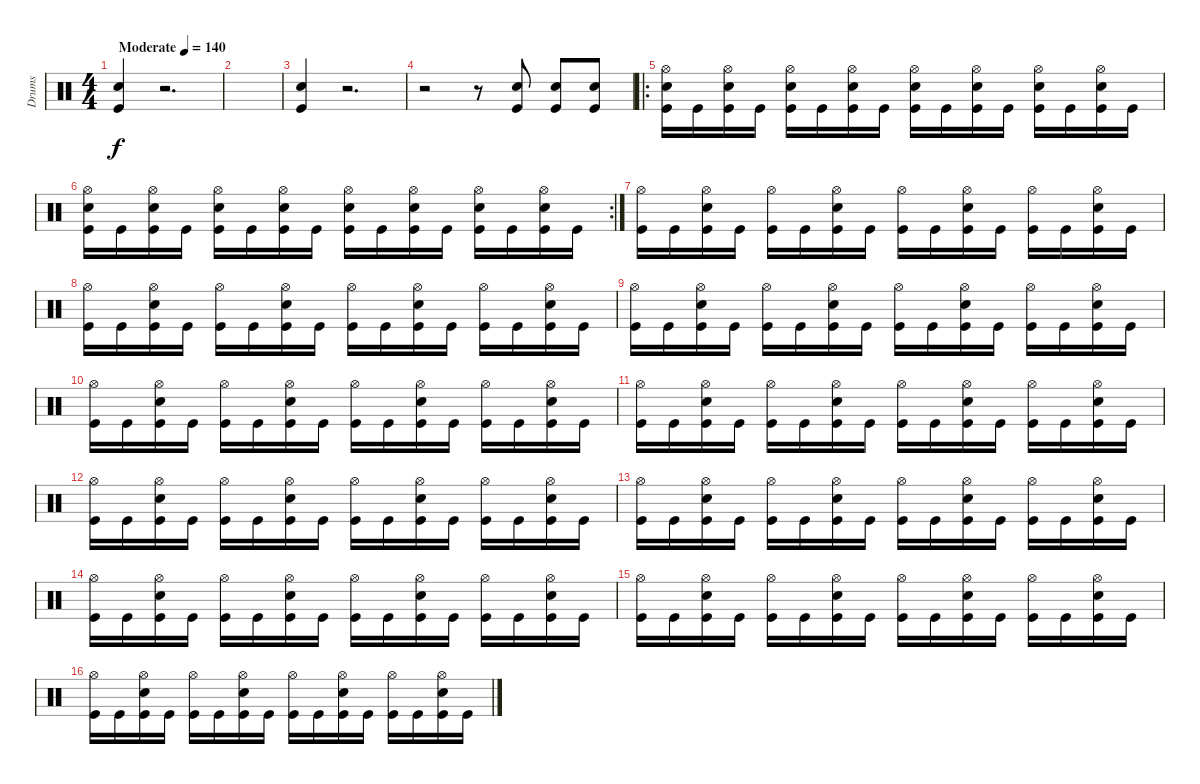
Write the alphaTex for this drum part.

\track ("Drums" "Drums") {instrument percussion}
\staff {score}
\articulation defaults
\ts (4 4)
\tempo (140 "Moderate")
\clef neutral
\ks c
("Snare (hit) 2" "Kick (hit)").4{dy f} r.2{d} |
|
("Snare (hit) 2" "Kick (hit)").4 r.2{d} |
r.2 r.8 ("Snare (hit) 2" "Kick (hit)").8 ("Snare (hit) 2" "Kick (hit)").8 ("Snare (hit) 2" "Kick (hit)").8 |
\ro
("Hi-Hat (open)" "Snare (hit) 2" "Kick (hit)").16 "Kick (hit)".16 ("Hi-Hat (open)" "Snare (hit) 2" "Kick (hit)").16 "Kick (hit)".16 ("Hi-Hat (open)" "Snare (hit) 2" "Kick (hit)").16 "Kick (hit)".16 ("Hi-Hat (open)" "Snare (hit) 2" "Kick (hit)").16 "Kick (hit)".16 ("Hi-Hat (open)" "Snare (hit) 2" "Kick (hit)").16 "Kick (hit)".16 ("Hi-Hat (open)" "Snare (hit) 2" "Kick (hit)").16 "Kick (hit)".16 ("Hi-Hat (open)" "Snare (hit) 2" "Kick (hit)").16 "Kick (hit)".16 ("Hi-Hat (open)" "Snare (hit) 2" "Kick (hit)").16 "Kick (hit)".16 |
\rc 2
("Hi-Hat (open)" "Snare (hit) 2" "Kick (hit)").16 "Kick (hit)".16 ("Hi-Hat (open)" "Snare (hit) 2" "Kick (hit)").16 "Kick (hit)".16 ("Hi-Hat (open)" "Snare (hit) 2" "Kick (hit)").16 "Kick (hit)".16 ("Hi-Hat (open)" "Snare (hit) 2" "Kick (hit)").16 "Kick (hit)".16 ("Hi-Hat (open)" "Snare (hit) 2" "Kick (hit)").16 "Kick (hit)".16 ("Hi-Hat (open)" "Snare (hit) 2" "Kick (hit)").16 "Kick (hit)".16 ("Hi-Hat (open)" "Snare (hit) 2" "Kick (hit)").16 "Kick (hit)".16 ("Hi-Hat (open)" "Snare (hit) 2" "Kick (hit)").16 "Kick (hit)".16 |
("Hi-Hat (open)" "Kick (hit)").16 "Kick (hit)".16 ("Hi-Hat (open)" "Snare (hit) 2" "Kick (hit)").16 "Kick (hit)".16 ("Hi-Hat (open)" "Kick (hit)").16 "Kick (hit)".16 ("Hi-Hat (open)" "Snare (hit) 2" "Kick (hit)").16 "Kick (hit)".16 ("Hi-Hat (open)" "Kick (hit)").16 "Kick (hit)".16 ("Hi-Hat (open)" "Snare (hit) 2" "Kick (hit)").16 "Kick (hit)".16 ("Hi-Hat (open)" "Kick (hit)").16 "Kick (hit)".16 ("Hi-Hat (open)" "Snare (hit) 2" "Kick (hit)").16 "Kick (hit)".16 |
("Hi-Hat (open)" "Kick (hit)").16 "Kick (hit)".16 ("Hi-Hat (open)" "Snare (hit) 2" "Kick (hit)").16 "Kick (hit)".16 ("Hi-Hat (open)" "Kick (hit)").16 "Kick (hit)".16 ("Hi-Hat (open)" "Snare (hit) 2" "Kick (hit)").16 "Kick (hit)".16 ("Hi-Hat (open)" "Kick (hit)").16 "Kick (hit)".16 ("Hi-Hat (open)" "Snare (hit) 2" "Kick (hit)").16 "Kick (hit)".16 ("Hi-Hat (open)" "Kick (hit)").16 "Kick (hit)".16 ("Hi-Hat (open)" "Snare (hit) 2" "Kick (hit)").16 "Kick (hit)".16 |
("Hi-Hat (open)" "Kick (hit)").16 "Kick (hit)".16 ("Hi-Hat (open)" "Snare (hit) 2" "Kick (hit)").16 "Kick (hit)".16 ("Hi-Hat (open)" "Kick (hit)").16 "Kick (hit)".16 ("Hi-Hat (open)" "Snare (hit) 2" "Kick (hit)").16 "Kick (hit)".16 ("Hi-Hat (open)" "Kick (hit)").16 "Kick (hit)".16 ("Hi-Hat (open)" "Snare (hit) 2" "Kick (hit)").16 "Kick (hit)".16 ("Hi-Hat (open)" "Kick (hit)").16 "Kick (hit)".16 ("Hi-Hat (open)" "Snare (hit) 2" "Kick (hit)").16 "Kick (hit)".16 |
("Hi-Hat (open)" "Kick (hit)").16 "Kick (hit)".16 ("Hi-Hat (open)" "Snare (hit) 2" "Kick (hit)").16 "Kick (hit)".16 ("Hi-Hat (open)" "Kick (hit)").16 "Kick (hit)".16 ("Hi-Hat (open)" "Snare (hit) 2" "Kick (hit)").16 "Kick (hit)".16 ("Hi-Hat (open)" "Kick (hit)").16 "Kick (hit)".16 ("Hi-Hat (open)" "Snare (hit) 2" "Kick (hit)").16 "Kick (hit)".16 ("Hi-Hat (open)" "Kick (hit)").16 "Kick (hit)".16 ("Hi-Hat (open)" "Snare (hit) 2" "Kick (hit)").16 "Kick (hit)".16 |
("Hi-Hat (open)" "Kick (hit)").16 "Kick (hit)".16 ("Hi-Hat (open)" "Snare (hit) 2" "Kick (hit)").16 "Kick (hit)".16 ("Hi-Hat (open)" "Kick (hit)").16 "Kick (hit)".16 ("Hi-Hat (open)" "Snare (hit) 2" "Kick (hit)").16 "Kick (hit)".16 ("Hi-Hat (open)" "Kick (hit)").16 "Kick (hit)".16 ("Hi-Hat (open)" "Snare (hit) 2" "Kick (hit)").16 "Kick (hit)".16 ("Hi-Hat (open)" "Kick (hit)").16 "Kick (hit)".16 ("Hi-Hat (open)" "Snare (hit) 2" "Kick (hit)").16 "Kick (hit)".16 |
("Hi-Hat (open)" "Kick (hit)").16 "Kick (hit)".16 ("Hi-Hat (open)" "Snare (hit) 2" "Kick (hit)").16 "Kick (hit)".16 ("Hi-Hat (open)" "Kick (hit)").16 "Kick (hit)".16 ("Hi-Hat (open)" "Snare (hit) 2" "Kick (hit)").16 "Kick (hit)".16 ("Hi-Hat (open)" "Kick (hit)").16 "Kick (hit)".16 ("Hi-Hat (open)" "Snare (hit) 2" "Kick (hit)").16 "Kick (hit)".16 ("Hi-Hat (open)" "Kick (hit)").16 "Kick (hit)".16 ("Hi-Hat (open)" "Snare (hit) 2" "Kick (hit)").16 "Kick (hit)".16 |
("Hi-Hat (open)" "Kick (hit)").16 "Kick (hit)".16 ("Hi-Hat (open)" "Snare (hit) 2" "Kick (hit)").16 "Kick (hit)".16 ("Hi-Hat (open)" "Kick (hit)").16 "Kick (hit)".16 ("Hi-Hat (open)" "Snare (hit) 2" "Kick (hit)").16 "Kick (hit)".16 ("Hi-Hat (open)" "Kick (hit)").16 "Kick (hit)".16 ("Hi-Hat (open)" "Snare (hit) 2" "Kick (hit)").16 "Kick (hit)".16 ("Hi-Hat (open)" "Kick (hit)").16 "Kick (hit)".16 ("Hi-Hat (open)" "Snare (hit) 2" "Kick (hit)").16 "Kick (hit)".16 |
("Hi-Hat (open)" "Kick (hit)").16 "Kick (hit)".16 ("Hi-Hat (open)" "Snare (hit) 2" "Kick (hit)").16 "Kick (hit)".16 ("Hi-Hat (open)" "Kick (hit)").16 "Kick (hit)".16 ("Hi-Hat (open)" "Snare (hit) 2" "Kick (hit)").16 "Kick (hit)".16 ("Hi-Hat (open)" "Kick (hit)").16 "Kick (hit)".16 ("Hi-Hat (open)" "Snare (hit) 2" "Kick (hit)").16 "Kick (hit)".16 ("Hi-Hat (open)" "Kick (hit)").16 "Kick (hit)".16 ("Hi-Hat (open)" "Snare (hit) 2" "Kick (hit)").16 "Kick (hit)".16 |
("Hi-Hat (open)" "Kick (hit)").16 "Kick (hit)".16 ("Hi-Hat (open)" "Snare (hit) 2" "Kick (hit)").16 "Kick (hit)".16 ("Hi-Hat (open)" "Kick (hit)").16 "Kick (hit)".16 ("Hi-Hat (open)" "Snare (hit) 2" "Kick (hit)").16 "Kick (hit)".16 ("Hi-Hat (open)" "Kick (hit)").16 "Kick (hit)".16 ("Hi-Hat (open)" "Snare (hit) 2" "Kick (hit)").16 "Kick (hit)".16 ("Hi-Hat (open)" "Kick (hit)").16 "Kick (hit)".16 ("Hi-Hat (open)" "Snare (hit) 2" "Kick (hit)").16 "Kick (hit)".16 |
("Hi-Hat (open)" "Kick (hit)").16 "Kick (hit)".16 ("Hi-Hat (open)" "Snare (hit) 2" "Kick (hit)").16 "Kick (hit)".16 ("Hi-Hat (open)" "Kick (hit)").16 "Kick (hit)".16 ("Hi-Hat (open)" "Snare (hit) 2" "Kick (hit)").16 "Kick (hit)".16 ("Hi-Hat (open)" "Kick (hit)").16 "Kick (hit)".16 ("Hi-Hat (open)" "Snare (hit) 2" "Kick (hit)").16 "Kick (hit)".16 ("Hi-Hat (open)" "Kick (hit)").16 "Kick (hit)".16 ("Hi-Hat (open)" "Snare (hit) 2" "Kick (hit)").16 "Kick (hit)".16
